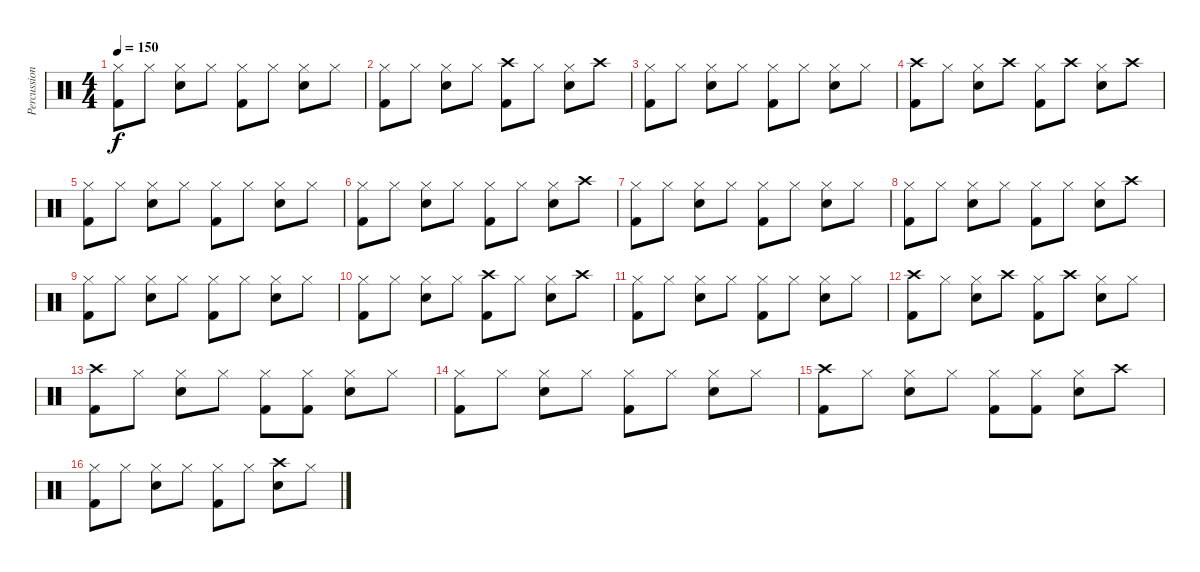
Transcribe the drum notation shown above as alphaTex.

\track ("Percussion" "Percussion") {instrument percussion}
\staff {score}
\articulation defaults
\ts (4 4)
\tempo 150
\clef neutral
\ks c
("Kick (hit) 2" "Hi-Hat (closed)").8{dy f} "Hi-Hat (closed)".8 ("Snare (hit) 2" "Hi-Hat (closed)").8 "Hi-Hat (closed)".8 ("Kick (hit) 2" "Hi-Hat (closed)").8 "Hi-Hat (closed)".8 ("Snare (hit) 2" "Hi-Hat (closed)").8 "Hi-Hat (closed)".8 |
("Kick (hit) 2" "Hi-Hat (closed)").8 "Hi-Hat (closed)".8 ("Snare (hit) 2" "Hi-Hat (closed)").8 "Hi-Hat (closed)".8 ("Kick (hit) 2" "Crash high (hit)").8 "Hi-Hat (closed)".8 ("Snare (hit) 2" "Hi-Hat (closed)").8 "Crash high (hit)".8 |
("Kick (hit) 2" "Hi-Hat (closed)").8 "Hi-Hat (closed)".8 ("Snare (hit) 2" "Hi-Hat (closed)").8 "Hi-Hat (closed)".8 ("Kick (hit) 2" "Hi-Hat (closed)").8 "Hi-Hat (closed)".8 ("Snare (hit) 2" "Hi-Hat (closed)").8 "Hi-Hat (closed)".8 |
("Kick (hit) 2" "Crash high (hit)").8 "Hi-Hat (closed)".8 ("Snare (hit) 2" "Hi-Hat (closed)").8 "Crash high (hit)".8 ("Kick (hit) 2" "Hi-Hat (closed)").8 "Crash high (hit)".8 ("Snare (hit) 2" "Hi-Hat (closed)").8 "Crash high (hit)".8 |
("Kick (hit) 2" "Hi-Hat (closed)").8 "Hi-Hat (closed)".8 ("Snare (hit) 2" "Hi-Hat (closed)").8 "Hi-Hat (closed)".8 ("Kick (hit) 2" "Hi-Hat (closed)").8 "Hi-Hat (closed)".8 ("Snare (hit) 2" "Hi-Hat (closed)").8 "Hi-Hat (closed)".8 |
("Kick (hit) 2" "Hi-Hat (closed)").8 "Hi-Hat (closed)".8 ("Snare (hit) 2" "Hi-Hat (closed)").8 "Hi-Hat (closed)".8 ("Kick (hit) 2" "Hi-Hat (closed)").8 "Hi-Hat (closed)".8 ("Snare (hit) 2" "Hi-Hat (closed)").8 "Crash high (hit)".8 |
("Kick (hit) 2" "Hi-Hat (closed)").8 "Hi-Hat (closed)".8 ("Snare (hit) 2" "Hi-Hat (closed)").8 "Hi-Hat (closed)".8 ("Kick (hit) 2" "Hi-Hat (closed)").8 "Hi-Hat (closed)".8 ("Snare (hit) 2" "Hi-Hat (closed)").8 "Hi-Hat (closed)".8 |
("Kick (hit) 2" "Hi-Hat (closed)").8 "Hi-Hat (closed)".8 ("Snare (hit) 2" "Hi-Hat (closed)").8 "Hi-Hat (closed)".8 ("Kick (hit) 2" "Hi-Hat (closed)").8 "Hi-Hat (closed)".8 ("Snare (hit) 2" "Hi-Hat (closed)").8 "Crash high (hit)".8 |
("Kick (hit) 2" "Hi-Hat (closed)").8 "Hi-Hat (closed)".8 ("Snare (hit) 2" "Hi-Hat (closed)").8 "Hi-Hat (closed)".8 ("Kick (hit) 2" "Hi-Hat (closed)").8 "Hi-Hat (closed)".8 ("Snare (hit) 2" "Hi-Hat (closed)").8 "Hi-Hat (closed)".8 |
("Kick (hit) 2" "Hi-Hat (closed)").8 "Hi-Hat (closed)".8 ("Snare (hit) 2" "Hi-Hat (closed)").8 "Hi-Hat (closed)".8 ("Kick (hit) 2" "Crash high (hit)").8 "Hi-Hat (closed)".8 ("Snare (hit) 2" "Hi-Hat (closed)").8 "Crash high (hit)".8 |
("Kick (hit) 2" "Hi-Hat (closed)").8 "Hi-Hat (closed)".8 ("Snare (hit) 2" "Hi-Hat (closed)").8 "Hi-Hat (closed)".8 ("Kick (hit) 2" "Hi-Hat (closed)").8 "Hi-Hat (closed)".8 ("Snare (hit) 2" "Hi-Hat (closed)").8 "Hi-Hat (closed)".8 |
("Kick (hit) 2" "Crash high (hit)").8 "Hi-Hat (closed)".8 ("Snare (hit) 2" "Hi-Hat (closed)").8 "Crash high (hit)".8 ("Kick (hit) 2" "Hi-Hat (closed)").8 "Crash high (hit)".8 ("Snare (hit) 2" "Hi-Hat (closed)").8 "Hi-Hat (closed)".8 |
("Kick (hit) 2" "Crash high (hit)").8 "Hi-Hat (closed)".8 ("Snare (hit) 2" "Hi-Hat (closed)").8 "Hi-Hat (closed)".8 ("Kick (hit) 2" "Hi-Hat (closed)").8 ("Kick (hit) 2" "Hi-Hat (closed)").8 ("Snare (hit) 2" "Hi-Hat (closed)").8 "Hi-Hat (closed)".8 |
("Kick (hit) 2" "Hi-Hat (closed)").8 "Hi-Hat (closed)".8 ("Snare (hit) 2" "Hi-Hat (closed)").8 "Hi-Hat (closed)".8 ("Kick (hit) 2" "Hi-Hat (closed)").8 "Hi-Hat (closed)".8 ("Snare (hit) 2" "Hi-Hat (closed)").8 "Hi-Hat (closed)".8 |
("Kick (hit) 2" "Crash high (hit)").8 "Hi-Hat (closed)".8 ("Snare (hit) 2" "Hi-Hat (closed)").8 "Hi-Hat (closed)".8 ("Kick (hit) 2" "Hi-Hat (closed)").8 ("Kick (hit) 2" "Hi-Hat (closed)").8 ("Snare (hit) 2" "Hi-Hat (closed)").8 "Crash high (hit)".8 |
("Kick (hit) 2" "Hi-Hat (closed)").8 "Hi-Hat (closed)".8 ("Snare (hit) 2" "Hi-Hat (closed)").8 "Hi-Hat (closed)".8 ("Kick (hit) 2" "Hi-Hat (closed)").8 "Hi-Hat (closed)".8 ("Snare (hit) 2" "Crash high (hit)").8 "Hi-Hat (closed)".8
